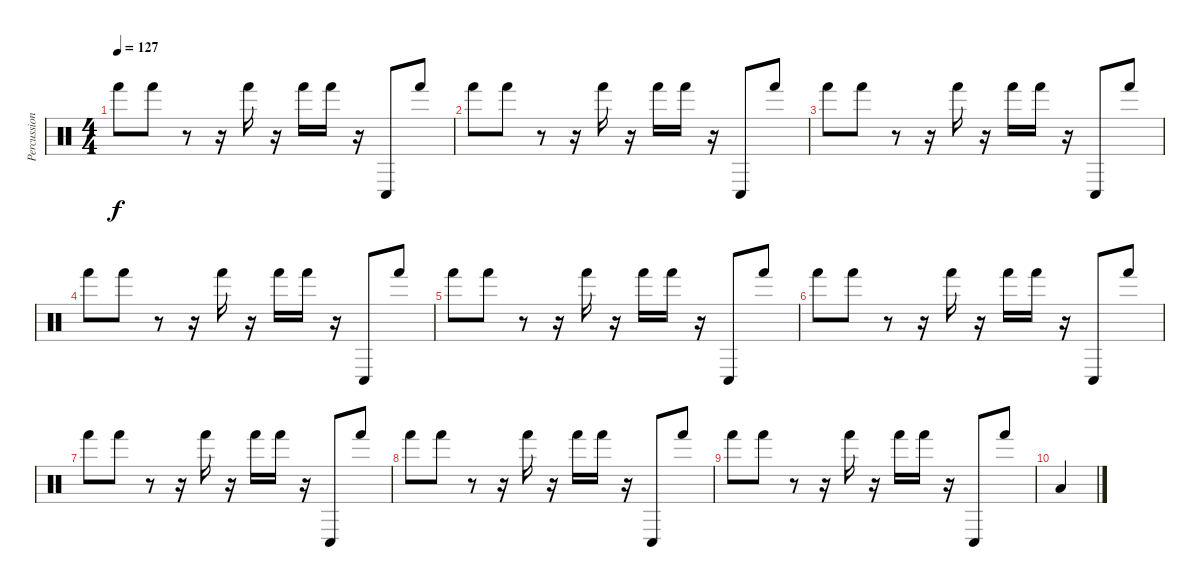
\track ("Percussions" "Percussion") {instrument percussion}
\staff {score}
\articulation defaults
\ts (4 4)
\tempo 127
\clef neutral
\ks c "Hand (hit)".8{dy f} "Hand (hit)".8
r.8 r.16 "Hand (hit)".16 r.16 "Hand (hit)".16 "Hand (hit)".16 r.16 "Conga low (hit)".8 "Hand (hit)".8 |
"Hand (hit)".8 "Hand (hit)".8 r.8 r.16 "Hand (hit)".16 r.16 "Hand (hit)".16 "Hand (hit)".16 r.16 "Conga low (hit)".8 "Hand (hit)".8 |
"Hand (hit)".8 "Hand (hit)".8 r.8 r.16 "Hand (hit)".16 r.16 "Hand (hit)".16 "Hand (hit)".16 r.16 "Conga low (hit)".8 "Hand (hit)".8 |
"Hand (hit)".8 "Hand (hit)".8 r.8 r.16 "Hand (hit)".16 r.16 "Hand (hit)".16 "Hand (hit)".16 r.16 "Conga low (hit)".8 "Hand (hit)".8 |
"Hand (hit)".8 "Hand (hit)".8 r.8 r.16 "Hand (hit)".16 r.16 "Hand (hit)".16 "Hand (hit)".16 r.16 "Conga low (hit)".8 "Hand (hit)".8 |
"Hand (hit)".8 "Hand (hit)".8 r.8 r.16 "Hand (hit)".16 r.16 "Hand (hit)".16 "Hand (hit)".16 r.16 "Conga low (hit)".8 "Hand (hit)".8 |
"Hand (hit)".8 "Hand (hit)".8 r.8 r.16 "Hand (hit)".16 r.16 "Hand (hit)".16 "Hand (hit)".16 r.16 "Conga low (hit)".8 "Hand (hit)".8 |
"Hand (hit)".8 "Hand (hit)".8 r.8 r.16 "Hand (hit)".16 r.16 "Hand (hit)".16 "Hand (hit)".16 r.16 "Conga low (hit)".8 "Hand (hit)".8 |
"Hand (hit)".8 "Hand (hit)".8 r.8 r.16 "Hand (hit)".16 r.16 "Hand (hit)".16 "Hand (hit)".16 r.16 "Conga low (hit)".8 "Hand (hit)".8 |
"Low Floor Tom (hit)".4
